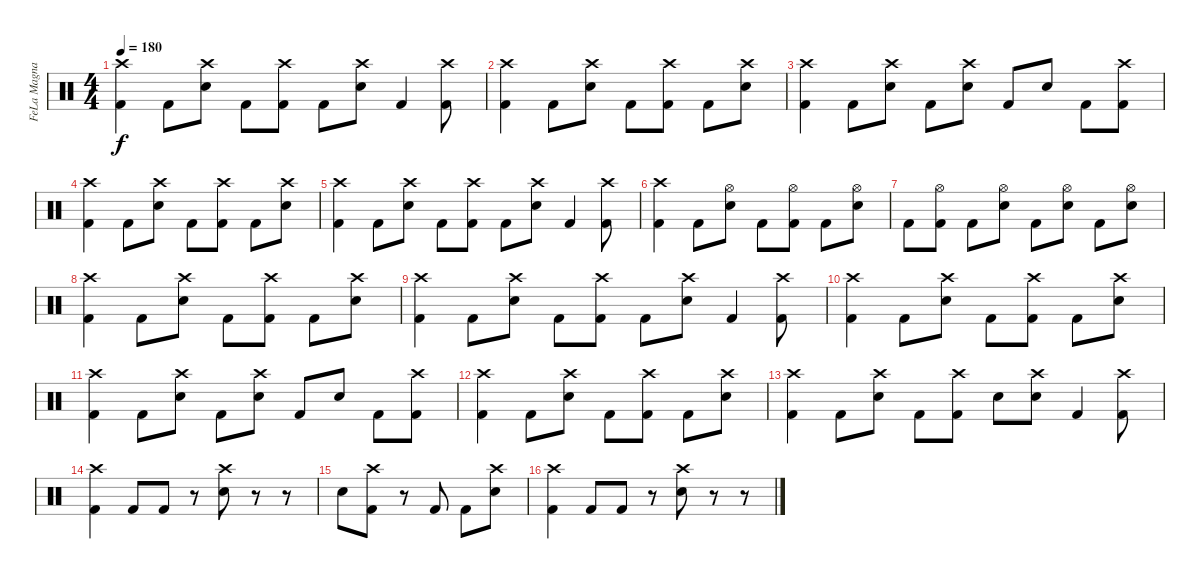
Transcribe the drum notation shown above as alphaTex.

\track ("FeLa Magnani" "FeLa Magna") {instrument percussion}
\staff {score}
\articulation defaults
\ts (4 4)
\tempo 180
\clef neutral
\ks c
("Crash high (hit)" "Kick (hit) 2").4{dy f} "Kick (hit) 2".8 ("Crash high (hit)" "Electric Snare (hit)").8 "Kick (hit) 2".8 ("Crash high (hit)" "Kick (hit) 2").8 "Kick (hit) 2".8 ("Crash high (hit)" "Electric Snare (hit)").8 "Kick (hit) 2".4 ("Crash high (hit)" "Kick (hit) 2").8 |
("Crash high (hit)" "Kick (hit) 2").4 "Kick (hit) 2".8 ("Crash high (hit)" "Electric Snare (hit)").8 "Kick (hit) 2".8 ("Crash high (hit)" "Kick (hit) 2").8 "Kick (hit) 2".8 ("Crash high (hit)" "Electric Snare (hit)").8 |
("Crash high (hit)" "Kick (hit) 2").4 "Kick (hit) 2".8 ("Crash high (hit)" "Electric Snare (hit)").8 "Kick (hit) 2".8 ("Crash high (hit)" "Electric Snare (hit)").8 "Kick (hit) 2".8 "Electric Snare (hit)".8 "Kick (hit) 2".8 ("Crash high (hit)" "Kick (hit) 2").8 |
("Crash high (hit)" "Kick (hit) 2").4 "Kick (hit) 2".8 ("Crash high (hit)" "Electric Snare (hit)").8 "Kick (hit) 2".8 ("Crash high (hit)" "Kick (hit) 2").8 "Kick (hit) 2".8 ("Crash high (hit)" "Electric Snare (hit)").8 |
("Crash high (hit)" "Kick (hit) 2").4 "Kick (hit) 2".8 ("Crash high (hit)" "Electric Snare (hit)").8 "Kick (hit) 2".8 ("Crash high (hit)" "Kick (hit) 2").8 "Kick (hit) 2".8 ("Crash high (hit)" "Electric Snare (hit)").8 "Kick (hit) 2".4 ("Crash high (hit)" "Kick (hit) 2").8 |
("Crash high (hit)" "Kick (hit) 2").4 "Kick (hit) 2".8 ("Hi-Hat (open)" "Electric Snare (hit)").8 "Kick (hit) 2".8 ("Hi-Hat (open)" "Kick (hit) 2").8 "Kick (hit) 2".8 ("Hi-Hat (open)" "Electric Snare (hit)").8 |
"Kick (hit) 2".8 ("Hi-Hat (open)" "Kick (hit) 2").8 "Kick (hit) 2".8 ("Hi-Hat (open)" "Electric Snare (hit)").8 "Kick (hit) 2".8 ("Hi-Hat (open)" "Electric Snare (hit)").8 "Kick (hit) 2".8 ("Hi-Hat (open)" "Electric Snare (hit)").8 |
("Crash high (hit)" "Kick (hit) 2").4 "Kick (hit) 2".8 ("Crash high (hit)" "Electric Snare (hit)").8 "Kick (hit) 2".8 ("Crash high (hit)" "Kick (hit) 2").8 "Kick (hit) 2".8 ("Crash high (hit)" "Electric Snare (hit)").8 |
("Crash high (hit)" "Kick (hit) 2").4 "Kick (hit) 2".8 ("Crash high (hit)" "Electric Snare (hit)").8 "Kick (hit) 2".8 ("Crash high (hit)" "Kick (hit) 2").8 "Kick (hit) 2".8 ("Crash high (hit)" "Electric Snare (hit)").8 "Kick (hit) 2".4 ("Crash high (hit)" "Kick (hit) 2").8 |
("Crash high (hit)" "Kick (hit) 2").4 "Kick (hit) 2".8 ("Crash high (hit)" "Electric Snare (hit)").8 "Kick (hit) 2".8 ("Crash high (hit)" "Kick (hit) 2").8 "Kick (hit) 2".8 ("Crash high (hit)" "Electric Snare (hit)").8 |
("Crash high (hit)" "Kick (hit) 2").4 "Kick (hit) 2".8 ("Crash high (hit)" "Electric Snare (hit)").8 "Kick (hit) 2".8 ("Crash high (hit)" "Electric Snare (hit)").8 "Kick (hit) 2".8 "Electric Snare (hit)".8 "Kick (hit) 2".8 ("Crash high (hit)" "Kick (hit) 2").8 |
("Crash high (hit)" "Kick (hit) 2").4 "Kick (hit) 2".8 ("Crash high (hit)" "Electric Snare (hit)").8 "Kick (hit) 2".8 ("Crash high (hit)" "Kick (hit) 2").8 "Kick (hit) 2".8 ("Crash high (hit)" "Electric Snare (hit)").8 |
("Crash high (hit)" "Kick (hit) 2").4 "Kick (hit) 2".8 ("Crash high (hit)" "Electric Snare (hit)").8 "Kick (hit) 2".8 ("Crash high (hit)" "Kick (hit) 2").8 "Electric Snare (hit)".8 ("Crash high (hit)" "Electric Snare (hit)").8 "Kick (hit) 2".4 ("Crash high (hit)" "Kick (hit) 2").8 |
("Crash high (hit)" "Kick (hit) 2").4 "Kick (hit) 2".8 "Kick (hit) 2".8 r.8 ("Crash high (hit)" "Electric Snare (hit)").8 r.8 r.8 |
"Electric Snare (hit)".8 ("Crash high (hit)" "Kick (hit) 2").8 r.8 "Kick (hit) 2".8 "Kick (hit) 2".8 ("Crash high (hit)" "Electric Snare (hit)").8 |
("Crash high (hit)" "Kick (hit) 2").4 "Kick (hit) 2".8 "Kick (hit) 2".8 r.8 ("Crash high (hit)" "Electric Snare (hit)").8 r.8 r.8
